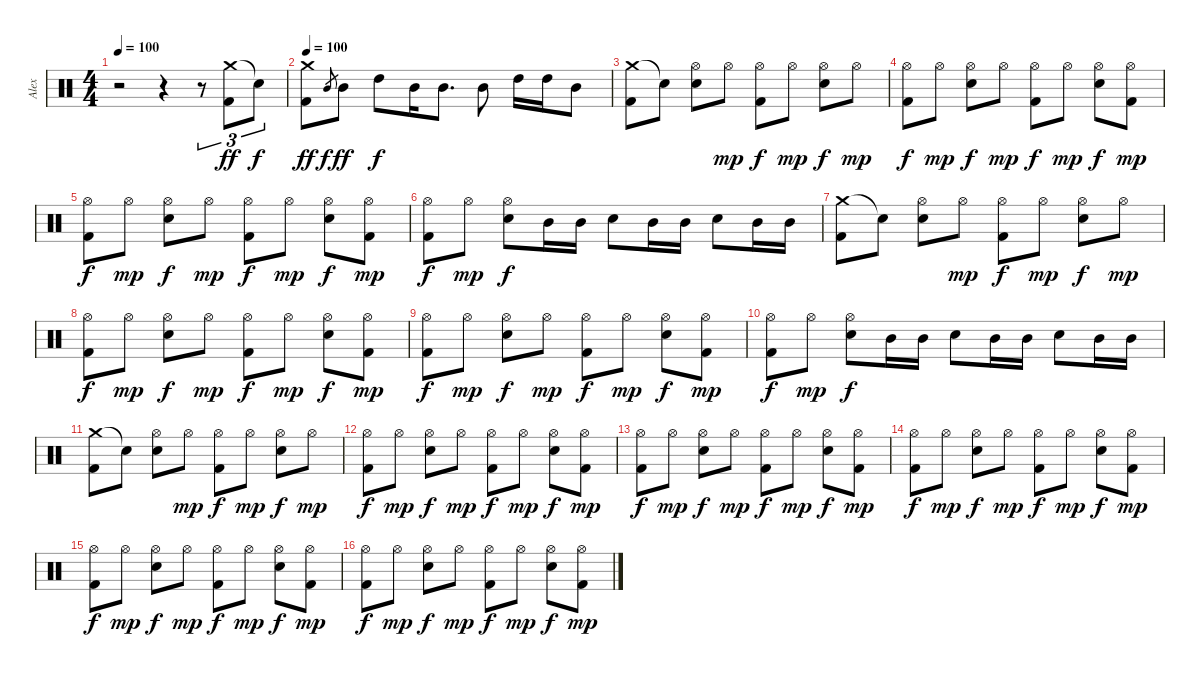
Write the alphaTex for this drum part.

\track ("Alex" "Alex") {instrument percussion}
\staff {score}
\articulation defaults
\ts (4 4)
\tempo 100
\tempo 130
\tempo 100
\clef neutral
\ks c
r.2{dy ff} r.4 r.8{tu (3 2)} ("Crash medium (hit)" "Kick (hit) 2").8{tu (3 2)} "Snare (hit)"{t}.8{tu (3 2) dy f} |
\tempo 100
("Crash medium (hit)" "Kick (hit) 2").8{dy ff} "Mid Tom (hit)".8{gr dy f} "Mid Tom (hit)".8{dy ff} "High Tom (hit)".8{dy f} "Mid Tom (hit)".16 "Mid Tom (hit)".8{d} "Mid Tom (hit)".8 "High Tom (hit)".16 "High Tom (hit)".16 "Mid Tom (hit)".8 |
("Crash medium (hit)" "Kick (hit) 2").8 "Snare (hit)"{t}.8 ("Hi-Hat (open)" "Electric Snare (hit)").8 "Hi-Hat (open)".8{dy mp} ("Hi-Hat (open)" "Kick (hit) 2").8{dy f} "Hi-Hat (open)".8{dy mp} ("Hi-Hat (open)" "Electric Snare (hit)").8{dy f} "Hi-Hat (open)".8{dy mp} |
("Hi-Hat (open)" "Kick (hit) 2").8{dy f} "Hi-Hat (open)".8{dy mp} ("Hi-Hat (open)" "Electric Snare (hit)").8{dy f} "Hi-Hat (open)".8{dy mp} ("Hi-Hat (open)" "Kick (hit) 2").8{dy f} "Hi-Hat (open)".8{dy mp} ("Hi-Hat (open)" "Electric Snare (hit)").8{dy f} ("Hi-Hat (open)" "Kick (hit) 2").8{dy mp} |
("Hi-Hat (open)" "Kick (hit) 2").8{dy f} "Hi-Hat (open)".8{dy mp} ("Hi-Hat (open)" "Electric Snare (hit)").8{dy f} "Hi-Hat (open)".8{dy mp} ("Hi-Hat (open)" "Kick (hit) 2").8{dy f} "Hi-Hat (open)".8{dy mp} ("Hi-Hat (open)" "Electric Snare (hit)").8{dy f} ("Hi-Hat (open)" "Kick (hit) 2").8{dy mp} |
("Hi-Hat (open)" "Kick (hit) 2").8{dy f} "Hi-Hat (open)".8{dy mp} ("Hi-Hat (open)" "Electric Snare (hit)").8{dy f} "Mid Tom (hit)".16 "Mid Tom (hit)".16 "Electric Snare (hit)".8 "Mid Tom (hit)".16 "Mid Tom (hit)".16 "Electric Snare (hit)".8 "Mid Tom (hit)".16 "Mid Tom (hit)".16 |
("Crash medium (hit)" "Kick (hit) 2").8 "Snare (hit)"{t}.8 ("Hi-Hat (open)" "Electric Snare (hit)").8 "Hi-Hat (open)".8{dy mp} ("Hi-Hat (open)" "Kick (hit) 2").8{dy f} "Hi-Hat (open)".8{dy mp} ("Hi-Hat (open)" "Electric Snare (hit)").8{dy f} "Hi-Hat (open)".8{dy mp} |
("Hi-Hat (open)" "Kick (hit) 2").8{dy f} "Hi-Hat (open)".8{dy mp} ("Hi-Hat (open)" "Electric Snare (hit)").8{dy f} "Hi-Hat (open)".8{dy mp} ("Hi-Hat (open)" "Kick (hit) 2").8{dy f} "Hi-Hat (open)".8{dy mp} ("Hi-Hat (open)" "Electric Snare (hit)").8{dy f} ("Hi-Hat (open)" "Kick (hit) 2").8{dy mp} |
("Hi-Hat (open)" "Kick (hit) 2").8{dy f} "Hi-Hat (open)".8{dy mp} ("Hi-Hat (open)" "Electric Snare (hit)").8{dy f} "Hi-Hat (open)".8{dy mp} ("Hi-Hat (open)" "Kick (hit) 2").8{dy f} "Hi-Hat (open)".8{dy mp} ("Hi-Hat (open)" "Electric Snare (hit)").8{dy f} ("Hi-Hat (open)" "Kick (hit) 2").8{dy mp} |
("Hi-Hat (open)" "Kick (hit) 2").8{dy f} "Hi-Hat (open)".8{dy mp} ("Hi-Hat (open)" "Electric Snare (hit)").8{dy f} "Mid Tom (hit)".16 "Mid Tom (hit)".16 "Electric Snare (hit)".8 "Mid Tom (hit)".16 "Mid Tom (hit)".16 "Electric Snare (hit)".8 "Mid Tom (hit)".16 "Mid Tom (hit)".16 |
("Crash medium (hit)" "Kick (hit) 2").8 "Snare (hit)"{t}.8 ("Hi-Hat (open)" "Electric Snare (hit)").8 "Hi-Hat (open)".8{dy mp} ("Hi-Hat (open)" "Kick (hit) 2").8{dy f} "Hi-Hat (open)".8{dy mp} ("Hi-Hat (open)" "Electric Snare (hit)").8{dy f} "Hi-Hat (open)".8{dy mp} |
("Hi-Hat (open)" "Kick (hit) 2").8{dy f} "Hi-Hat (open)".8{dy mp} ("Hi-Hat (open)" "Electric Snare (hit)").8{dy f} "Hi-Hat (open)".8{dy mp} ("Hi-Hat (open)" "Kick (hit) 2").8{dy f} "Hi-Hat (open)".8{dy mp} ("Hi-Hat (open)" "Electric Snare (hit)").8{dy f} ("Hi-Hat (open)" "Kick (hit) 2").8{dy mp} |
("Hi-Hat (open)" "Kick (hit) 2").8{dy f} "Hi-Hat (open)".8{dy mp} ("Hi-Hat (open)" "Electric Snare (hit)").8{dy f} "Hi-Hat (open)".8{dy mp} ("Hi-Hat (open)" "Kick (hit) 2").8{dy f} "Hi-Hat (open)".8{dy mp} ("Hi-Hat (open)" "Electric Snare (hit)").8{dy f} ("Hi-Hat (open)" "Kick (hit) 2").8{dy mp} |
("Hi-Hat (open)" "Kick (hit) 2").8{dy f} "Hi-Hat (open)".8{dy mp} ("Hi-Hat (open)" "Electric Snare (hit)").8{dy f} "Hi-Hat (open)".8{dy mp} ("Hi-Hat (open)" "Kick (hit) 2").8{dy f} "Hi-Hat (open)".8{dy mp} ("Hi-Hat (open)" "Electric Snare (hit)").8{dy f} ("Hi-Hat (open)" "Kick (hit) 2").8{dy mp} |
("Hi-Hat (open)" "Kick (hit) 2").8{dy f} "Hi-Hat (open)".8{dy mp} ("Hi-Hat (open)" "Electric Snare (hit)").8{dy f} "Hi-Hat (open)".8{dy mp} ("Hi-Hat (open)" "Kick (hit) 2").8{dy f} "Hi-Hat (open)".8{dy mp} ("Hi-Hat (open)" "Electric Snare (hit)").8{dy f} ("Hi-Hat (open)" "Kick (hit) 2").8{dy mp} |
("Hi-Hat (open)" "Kick (hit) 2").8{dy f} "Hi-Hat (open)".8{dy mp} ("Hi-Hat (open)" "Electric Snare (hit)").8{dy f} "Hi-Hat (open)".8{dy mp} ("Hi-Hat (open)" "Kick (hit) 2").8{dy f} "Hi-Hat (open)".8{dy mp} ("Hi-Hat (open)" "Electric Snare (hit)").8{dy f} ("Hi-Hat (open)" "Kick (hit) 2").8{dy mp}
